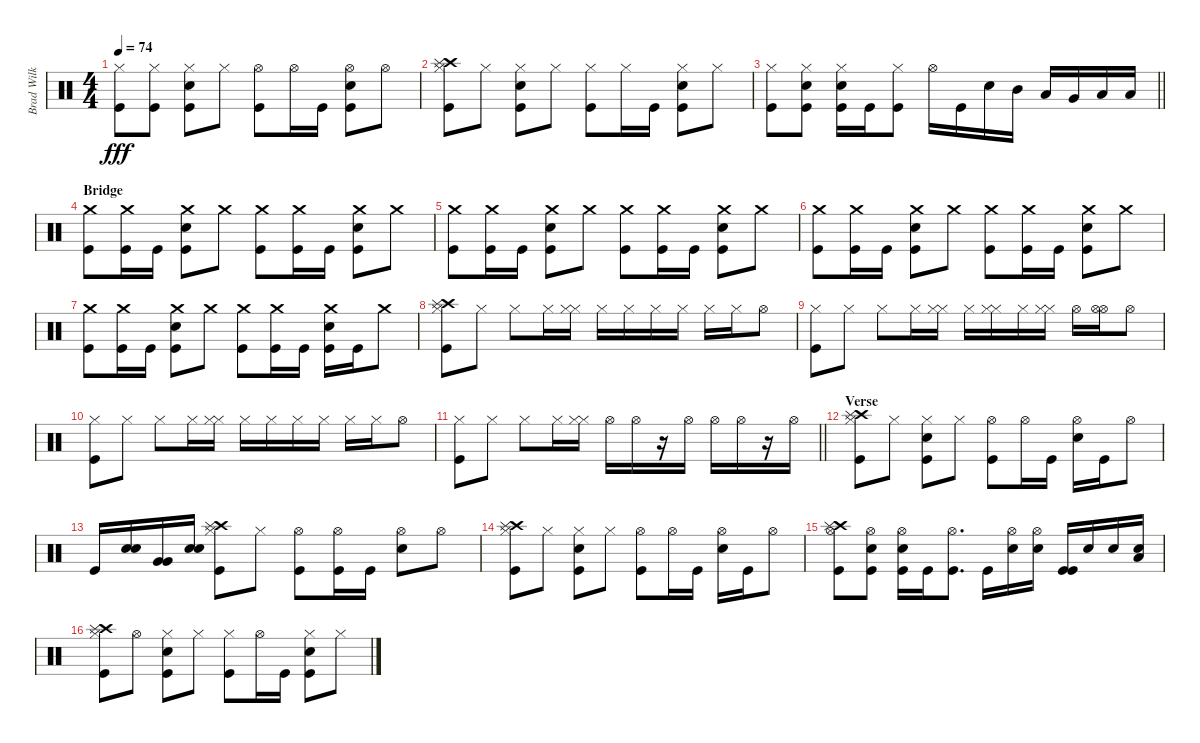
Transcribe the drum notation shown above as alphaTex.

\track ("Brad Wilk" "Brad Wilk") {instrument percussion}
\staff {score}
\articulation defaults
\ts (4 4)
\tempo 74
\clef neutral
\ks c
("Kick (hit)" "Hi-Hat (closed)").8{dy fff} ("Kick (hit)" "Hi-Hat (closed)").8 ("Kick (hit)" "Electric Snare (hit)" "Hi-Hat (closed)").8 "Hi-Hat (closed)".8 ("Kick (hit)" "Hi-Hat (open)").8 "Hi-Hat (open)".16 "Kick (hit)".16 ("Kick (hit)" "Electric Snare (hit)" "Hi-Hat (open)").8 "Hi-Hat (open)".8 |
("Crash high (hit)" "Splash (hit)" "Kick (hit)" "Hi-Hat (closed)").8 "Hi-Hat (closed)".8 ("Kick (hit)" "Electric Snare (hit)" "Hi-Hat (closed)").8 "Hi-Hat (closed)".8 ("Kick (hit)" "Hi-Hat (closed)").8 "Hi-Hat (closed)".16 "Kick (hit)".16 ("Kick (hit)" "Electric Snare (hit)" "Hi-Hat (closed)").8 "Hi-Hat (closed)".8 |
\barLineRight lightlight
("Kick (hit)" "Hi-Hat (closed)").8 ("Kick (hit)" "Electric Snare (hit)" "Hi-Hat (closed)").8 ("Kick (hit)" "Electric Snare (hit)" "Hi-Hat (closed)").16 "Kick (hit)".16 ("Kick (hit)" "Hi-Hat (closed)").8 "Hi-Hat (open)".16 "Kick (hit)".16 "Snare (hit) 2".16 "Mid Tom (hit)".16 "Low Tom (hit)".16 "Very Low Tom (hit)".16 "Low Floor Tom (hit)".16 "Low Floor Tom (hit)".16 |
\section ("" "Bridge")
("Crash medium (hit)" "Kick (hit)").8 ("Crash medium (hit)" "Kick (hit)").16 "Kick (hit)".16 ("Crash medium (hit)" "Kick (hit)" "Electric Snare (hit)").8 "Crash medium (hit)".8 ("Crash medium (hit)" "Kick (hit)").8 ("Crash medium (hit)" "Kick (hit)").16 "Kick (hit)".16 ("Crash medium (hit)" "Kick (hit)" "Electric Snare (hit)").8 "Crash medium (hit)".8 |
("Crash medium (hit)" "Kick (hit)").8 ("Crash medium (hit)" "Kick (hit)").16 "Kick (hit)".16 ("Crash medium (hit)" "Kick (hit)" "Electric Snare (hit)").8 "Crash medium (hit)".8 ("Crash medium (hit)" "Kick (hit)").8 ("Crash medium (hit)" "Kick (hit)").16 "Kick (hit)".16 ("Crash medium (hit)" "Kick (hit)" "Electric Snare (hit)").8 "Crash medium (hit)".8 |
("Crash medium (hit)" "Kick (hit)").8 ("Crash medium (hit)" "Kick (hit)").16 "Kick (hit)".16 ("Crash medium (hit)" "Kick (hit)" "Electric Snare (hit)").8 "Crash medium (hit)".8 ("Crash medium (hit)" "Kick (hit)").8 ("Crash medium (hit)" "Kick (hit)").16 "Kick (hit)".16 ("Crash medium (hit)" "Kick (hit)" "Electric Snare (hit)").8 "Crash medium (hit)".8 |
("Crash medium (hit)" "Kick (hit)").8 ("Crash medium (hit)" "Kick (hit)").16 "Kick (hit)".16 ("Crash medium (hit)" "Kick (hit)" "Electric Snare (hit)").8 "Crash medium (hit)".8 ("Crash medium (hit)" "Kick (hit)").8 ("Crash medium (hit)" "Kick (hit)").16 "Kick (hit)".16 ("Crash medium (hit)" "Kick (hit)" "Electric Snare (hit)").16 "Kick (hit)".16 "Crash medium (hit)".8 |
("Crash high (hit)" "Splash (hit)" "Kick (hit)" "Hi-Hat (closed)").8 "Hi-Hat (closed)".8 "Hi-Hat (closed)".8 "Hi-Hat (closed)".16 ("Hi-Hat (closed)" "Hi-Hat (closed)").16 "Hi-Hat (closed)".16 "Hi-Hat (closed)".16 "Hi-Hat (closed)".16 "Hi-Hat (closed)".16 "Hi-Hat (closed)".16 "Hi-Hat (closed)".16 "Hi-Hat (open)".8 |
("Kick (hit)" "Hi-Hat (closed)").8 "Hi-Hat (closed)".8 "Hi-Hat (closed)".8 "Hi-Hat (closed)".16 ("Hi-Hat (closed)" "Hi-Hat (closed)").16 "Hi-Hat (closed)".16 ("Hi-Hat (closed)" "Hi-Hat (closed)").16 "Hi-Hat (closed)".16 ("Hi-Hat (closed)" "Hi-Hat (closed)").16 "Hi-Hat (open)".16 ("Hi-Hat (open)" "Hi-Hat (open)").16 "Hi-Hat (open)".8 |
("Kick (hit)" "Hi-Hat (closed)").8 "Hi-Hat (closed)".8 "Hi-Hat (closed)".8 "Hi-Hat (closed)".16 ("Hi-Hat (closed)" "Hi-Hat (closed)").16 "Hi-Hat (closed)".16 "Hi-Hat (closed)".16 "Hi-Hat (closed)".16 "Hi-Hat (closed)".16 "Hi-Hat (closed)".16 "Hi-Hat (closed)".16 "Hi-Hat (open)".8 |
\barLineRight lightlight
("Kick (hit)" "Hi-Hat (closed)").8 "Hi-Hat (closed)".8 "Hi-Hat (closed)".8 "Hi-Hat (closed)".16 ("Hi-Hat (closed)" "Hi-Hat (closed)").16 "Hi-Hat (open)".16 "Hi-Hat (open)".16 r.16 "Hi-Hat (open)".16 "Hi-Hat (open)".16 "Hi-Hat (open)".16 r.16 "Hi-Hat (open)".16 |
\section ("" "Verse")
("Crash high (hit)" "Splash (hit)" "Kick (hit)" "Hi-Hat (closed)").8 "Hi-Hat (closed)".8 ("Kick (hit)" "Electric Snare (hit)" "Hi-Hat (closed)").8 "Hi-Hat (closed)".8 ("Kick (hit)" "Hi-Hat (open)").8 "Hi-Hat (open)".16 "Kick (hit)".16 ("Electric Snare (hit)" "Hi-Hat (open)").16 "Kick (hit)".16 "Hi-Hat (open)".8 |
"Kick (hit)".16 ("Electric Snare (hit)" "Electric Snare (hit)").16 ("Very Low Tom (hit)" "Very Low Tom (hit)").16 ("Snare (hit) 2" "Snare (hit) 2").16 ("Crash high (hit)" "Splash (hit)" "Kick (hit)" "Hi-Hat (closed)").8 "Hi-Hat (closed)".8 ("Kick (hit)" "Hi-Hat (open)").8 ("Kick (hit)" "Hi-Hat (open)").16 "Kick (hit)".16 ("Electric Snare (hit)" "Hi-Hat (open)").8 "Hi-Hat (open)".8 |
("Crash high (hit)" "Splash (hit)" "Kick (hit)" "Hi-Hat (closed)").8 "Hi-Hat (closed)".8 ("Kick (hit)" "Electric Snare (hit)" "Hi-Hat (closed)").8 "Hi-Hat (closed)".8 ("Kick (hit)" "Hi-Hat (open)").8 "Hi-Hat (open)".16 "Kick (hit)".16 ("Electric Snare (hit)" "Hi-Hat (open)").16 "Kick (hit)".16 "Hi-Hat (open)".8 |
("Crash high (hit)" "Splash (hit)" "Kick (hit)" "Hi-Hat (open)").8 ("Kick (hit)" "Electric Snare (hit)" "Hi-Hat (open)").8 ("Kick (hit)" "Electric Snare (hit)" "Hi-Hat (open)").16 "Kick (hit)".16 ("Kick (hit)" "Hi-Hat (open)").8{d} "Kick (hit)".16 ("Electric Snare (hit)" "Hi-Hat (open)").16 ("Electric Snare (hit)" "Hi-Hat (open)").16 ("Kick (hit)" "Kick (hit)").16 "Electric Snare (hit)".16 "Electric Snare (hit)".16 ("Low Floor Tom (hit)" "Electric Snare (hit)").16 |
("Crash high (hit)" "Splash (hit)" "Kick (hit)" "Hi-Hat (closed)").8 "Hi-Hat (open)".8 ("Kick (hit)" "Electric Snare (hit)" "Hi-Hat (closed)").8 "Hi-Hat (closed)".8 ("Kick (hit)" "Hi-Hat (closed)").8 "Hi-Hat (open)".16 "Kick (hit)".16 ("Kick (hit)" "Electric Snare (hit)" "Hi-Hat (closed)").8 "Hi-Hat (closed)".8
